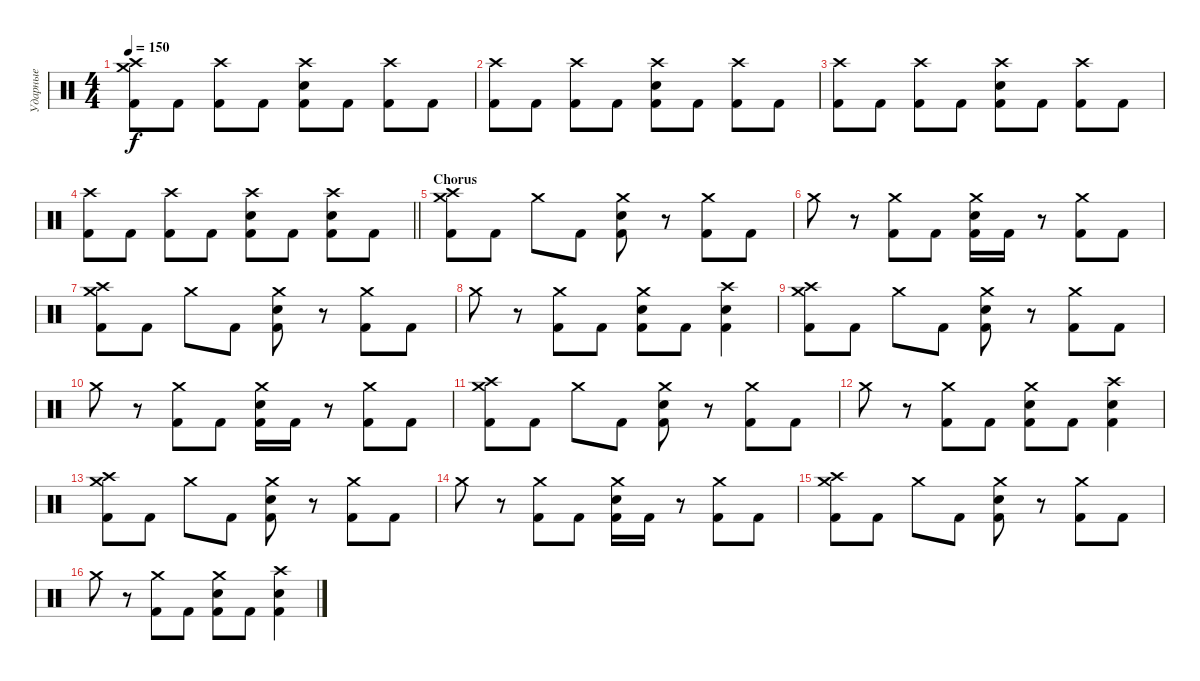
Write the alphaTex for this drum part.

\track ("Ударные" "Ударные") {instrument percussion}
\staff {score}
\articulation defaults
\ts (4 4)
\tempo 150
\clef neutral
\ks c
("Crash high (hit)" "Crash medium (hit)" "Kick (hit) 2").8{dy f} "Kick (hit) 2".8 ("Crash high (hit)" "Kick (hit) 2").8 "Kick (hit) 2".8 ("Crash high (hit)" "Electric Snare (hit)" "Kick (hit) 2").8 "Kick (hit) 2".8 ("Crash high (hit)" "Kick (hit) 2").8 "Kick (hit) 2".8 |
("Crash high (hit)" "Kick (hit) 2").8 "Kick (hit) 2".8 ("Crash high (hit)" "Kick (hit) 2").8 "Kick (hit) 2".8 ("Crash high (hit)" "Electric Snare (hit)" "Kick (hit) 2").8 "Kick (hit) 2".8 ("Crash high (hit)" "Kick (hit) 2").8 "Kick (hit) 2".8 |
("Crash high (hit)" "Kick (hit) 2").8 "Kick (hit) 2".8 ("Crash high (hit)" "Kick (hit) 2").8 "Kick (hit) 2".8 ("Crash high (hit)" "Electric Snare (hit)" "Kick (hit) 2").8 "Kick (hit) 2".8 ("Crash high (hit)" "Kick (hit) 2").8 "Kick (hit) 2".8 |
\barLineRight lightlight
("Crash high (hit)" "Kick (hit) 2").8 "Kick (hit) 2".8 ("Crash high (hit)" "Kick (hit) 2").8 "Kick (hit) 2".8 ("Crash high (hit)" "Electric Snare (hit)" "Kick (hit) 2").8 "Kick (hit) 2".8 ("Crash high (hit)" "Electric Snare (hit)" "Kick (hit) 2").8 "Kick (hit) 2".8 |
\section ("" "Chorus")
("Crash high (hit)" "Crash medium (hit)" "Kick (hit) 2").8 "Kick (hit) 2".8 "Crash medium (hit)".8 "Kick (hit) 2".8 ("Crash medium (hit)" "Electric Snare (hit)" "Kick (hit) 2").8 r.8 ("Crash medium (hit)" "Kick (hit) 2").8 "Kick (hit) 2".8 |
"Crash medium (hit)".8 r.8 ("Crash medium (hit)" "Kick (hit) 2").8 "Kick (hit) 2".8 ("Crash medium (hit)" "Electric Snare (hit)" "Kick (hit) 2").16 "Kick (hit) 2".16 r.8 ("Crash medium (hit)" "Kick (hit) 2").8 "Kick (hit) 2".8 |
("Crash high (hit)" "Crash medium (hit)" "Kick (hit) 2").8 "Kick (hit) 2".8 "Crash medium (hit)".8 "Kick (hit) 2".8 ("Crash medium (hit)" "Electric Snare (hit)" "Kick (hit) 2").8 r.8 ("Crash medium (hit)" "Kick (hit) 2").8 "Kick (hit) 2".8 |
"Crash medium (hit)".8 r.8 ("Crash medium (hit)" "Kick (hit) 2").8 "Kick (hit) 2".8 ("Crash medium (hit)" "Electric Snare (hit)" "Kick (hit) 2").8 "Kick (hit) 2".8 ("Crash high (hit)" "Electric Snare (hit)" "Kick (hit) 2").4 |
("Crash high (hit)" "Crash medium (hit)" "Kick (hit) 2").8 "Kick (hit) 2".8 "Crash medium (hit)".8 "Kick (hit) 2".8 ("Crash medium (hit)" "Electric Snare (hit)" "Kick (hit) 2").8 r.8 ("Crash medium (hit)" "Kick (hit) 2").8 "Kick (hit) 2".8 |
"Crash medium (hit)".8 r.8 ("Crash medium (hit)" "Kick (hit) 2").8 "Kick (hit) 2".8 ("Crash medium (hit)" "Electric Snare (hit)" "Kick (hit) 2").16 "Kick (hit) 2".16 r.8 ("Crash medium (hit)" "Kick (hit) 2").8 "Kick (hit) 2".8 |
("Crash high (hit)" "Crash medium (hit)" "Kick (hit) 2").8 "Kick (hit) 2".8 "Crash medium (hit)".8 "Kick (hit) 2".8 ("Crash medium (hit)" "Electric Snare (hit)" "Kick (hit) 2").8 r.8 ("Crash medium (hit)" "Kick (hit) 2").8 "Kick (hit) 2".8 |
"Crash medium (hit)".8 r.8 ("Crash medium (hit)" "Kick (hit) 2").8 "Kick (hit) 2".8 ("Crash medium (hit)" "Electric Snare (hit)" "Kick (hit) 2").8 "Kick (hit) 2".8 ("Crash high (hit)" "Electric Snare (hit)" "Kick (hit) 2").4 |
("Crash high (hit)" "Crash medium (hit)" "Kick (hit) 2").8 "Kick (hit) 2".8 "Crash medium (hit)".8 "Kick (hit) 2".8 ("Crash medium (hit)" "Electric Snare (hit)" "Kick (hit) 2").8 r.8 ("Crash medium (hit)" "Kick (hit) 2").8 "Kick (hit) 2".8 |
"Crash medium (hit)".8 r.8 ("Crash medium (hit)" "Kick (hit) 2").8 "Kick (hit) 2".8 ("Crash medium (hit)" "Electric Snare (hit)" "Kick (hit) 2").16 "Kick (hit) 2".16 r.8 ("Crash medium (hit)" "Kick (hit) 2").8 "Kick (hit) 2".8 |
("Crash high (hit)" "Crash medium (hit)" "Kick (hit) 2").8 "Kick (hit) 2".8 "Crash medium (hit)".8 "Kick (hit) 2".8 ("Crash medium (hit)" "Electric Snare (hit)" "Kick (hit) 2").8 r.8 ("Crash medium (hit)" "Kick (hit) 2").8 "Kick (hit) 2".8 |
"Crash medium (hit)".8 r.8 ("Crash medium (hit)" "Kick (hit) 2").8 "Kick (hit) 2".8 ("Crash medium (hit)" "Electric Snare (hit)" "Kick (hit) 2").8 "Kick (hit) 2".8 ("Crash high (hit)" "Electric Snare (hit)" "Kick (hit) 2").4
